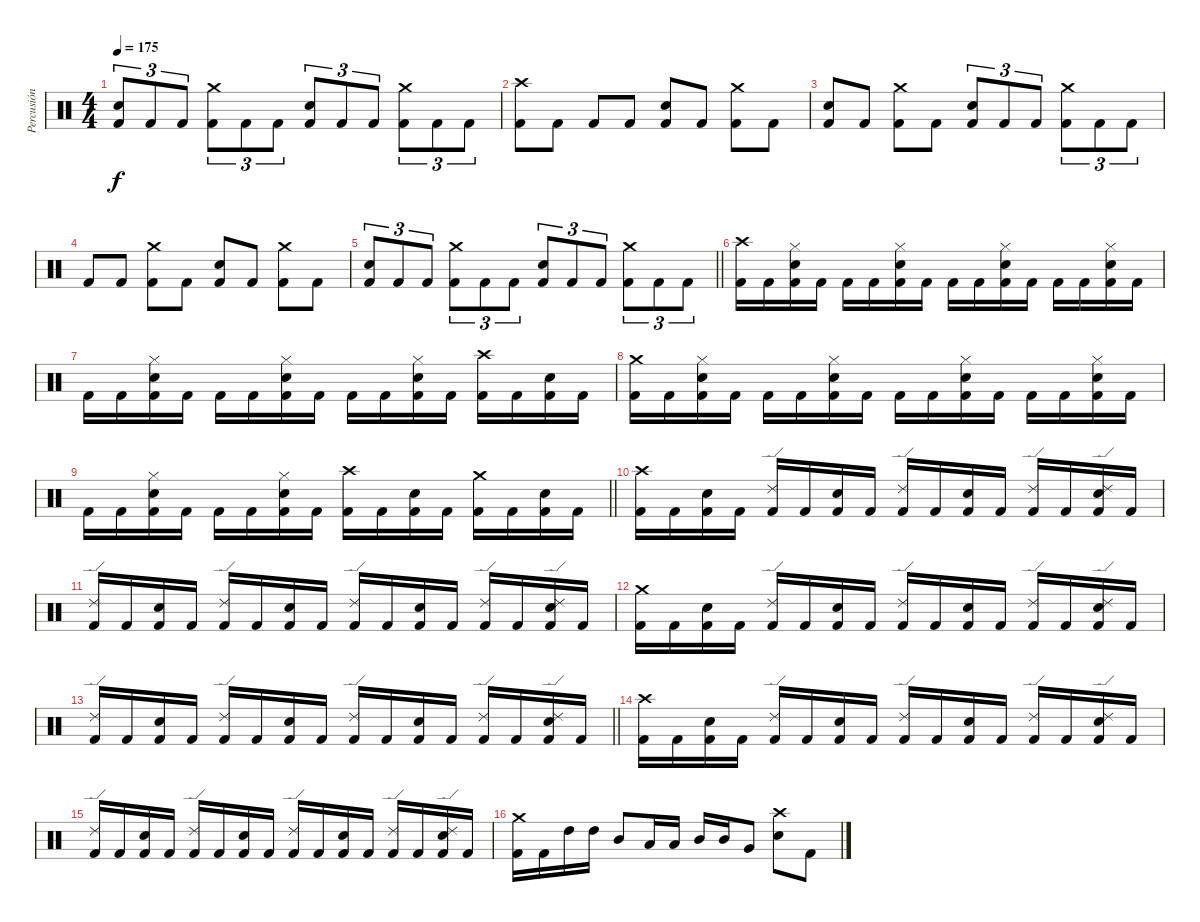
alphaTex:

\track ("Percusión" "Percusión") {instrument percussion}
\staff {score}
\articulation defaults
\ts (4 4)
\tempo 175
\clef neutral
\ks c
("Snare (hit) 2" "Kick (hit) 2").8{tu (3 2) dy f} "Kick (hit) 2".8{tu (3 2)} "Kick (hit) 2".8{tu (3 2)} ("Crash medium (hit)" "Kick (hit) 2").8{tu (3 2)} "Kick (hit) 2".8{tu (3 2)} "Kick (hit) 2".8{tu (3 2)} ("Snare (hit) 2" "Kick (hit) 2").8{tu (3 2)} "Kick (hit) 2".8{tu (3 2)} "Kick (hit) 2".8{tu (3 2)} ("Crash medium (hit)" "Kick (hit) 2").8{tu (3 2)} "Kick (hit) 2".8{tu (3 2)} "Kick (hit) 2".8{tu (3 2)} |
("Crash high (hit)" "Kick (hit) 2").8 "Kick (hit) 2".8 "Kick (hit) 2".8 "Kick (hit) 2".8 ("Snare (hit) 2" "Kick (hit) 2").8 "Kick (hit) 2".8 ("Crash medium (hit)" "Kick (hit) 2").8 "Kick (hit) 2".8 |
("Snare (hit) 2" "Kick (hit) 2").8 "Kick (hit) 2".8 ("Crash medium (hit)" "Kick (hit) 2").8 "Kick (hit) 2".8 ("Snare (hit) 2" "Kick (hit) 2").8{tu (3 2)} "Kick (hit) 2".8{tu (3 2)} "Kick (hit) 2".8{tu (3 2)} ("Crash medium (hit)" "Kick (hit) 2").8{tu (3 2)} "Kick (hit) 2".8{tu (3 2)} "Kick (hit) 2".8{tu (3 2)} |
"Kick (hit) 2".8 "Kick (hit) 2".8 ("Crash medium (hit)" "Kick (hit) 2").8 "Kick (hit) 2".8 ("Snare (hit) 2" "Kick (hit) 2").8 "Kick (hit) 2".8 ("Crash medium (hit)" "Kick (hit) 2").8 "Kick (hit) 2".8 |
\barLineRight lightlight
("Snare (hit) 2" "Kick (hit) 2").8{tu (3 2)} "Kick (hit) 2".8{tu (3 2)} "Kick (hit) 2".8{tu (3 2)} ("Crash medium (hit)" "Kick (hit) 2").8{tu (3 2)} "Kick (hit) 2".8{tu (3 2)} "Kick (hit) 2".8{tu (3 2)} ("Snare (hit) 2" "Kick (hit) 2").8{tu (3 2)} "Kick (hit) 2".8{tu (3 2)} "Kick (hit) 2".8{tu (3 2)} ("Crash medium (hit)" "Kick (hit) 2").8{tu (3 2)} "Kick (hit) 2".8{tu (3 2)} "Kick (hit) 2".8{tu (3 2)} |
\section ("" "")
("Crash high (hit)" "Kick (hit) 2").16 "Kick (hit) 2".16 ("Hi-Hat (closed)" "Snare (hit) 2" "Kick (hit) 2").16 "Kick (hit) 2".16 "Kick (hit) 2".16 "Kick (hit) 2".16 ("Hi-Hat (closed)" "Snare (hit) 2" "Kick (hit) 2").16 "Kick (hit) 2".16 "Kick (hit) 2".16 "Kick (hit) 2".16 ("Hi-Hat (closed)" "Snare (hit) 2" "Kick (hit) 2").16 "Kick (hit) 2".16 "Kick (hit) 2".16 "Kick (hit) 2".16 ("Hi-Hat (closed)" "Snare (hit) 2" "Kick (hit) 2").16 "Kick (hit) 2".16 |
"Kick (hit) 2".16 "Kick (hit) 2".16 ("Hi-Hat (closed)" "Snare (hit) 2" "Kick (hit) 2").16 "Kick (hit) 2".16 "Kick (hit) 2".16 "Kick (hit) 2".16 ("Hi-Hat (closed)" "Snare (hit) 2" "Kick (hit) 2").16 "Kick (hit) 2".16 "Kick (hit) 2".16 "Kick (hit) 2".16 ("Hi-Hat (closed)" "Snare (hit) 2" "Kick (hit) 2").16 "Kick (hit) 2".16 ("Crash high (hit)" "Kick (hit) 2").16 "Kick (hit) 2".16 ("Snare (hit) 2" "Kick (hit) 2").16 "Kick (hit) 2".16 |
("Crash medium (hit)" "Kick (hit) 2").16 "Kick (hit) 2".16 ("Hi-Hat (closed)" "Snare (hit) 2" "Kick (hit) 2").16 "Kick (hit) 2".16 "Kick (hit) 2".16 "Kick (hit) 2".16 ("Hi-Hat (closed)" "Snare (hit) 2" "Kick (hit) 2").16 "Kick (hit) 2".16 "Kick (hit) 2".16 "Kick (hit) 2".16 ("Hi-Hat (closed)" "Snare (hit) 2" "Kick (hit) 2").16 "Kick (hit) 2".16 "Kick (hit) 2".16 "Kick (hit) 2".16 ("Hi-Hat (closed)" "Snare (hit) 2" "Kick (hit) 2").16 "Kick (hit) 2".16 |
\barLineRight lightlight "Kick (hit) 2".16 "Kick (hit) 2".16
("Hi-Hat (closed)" "Snare (hit) 2" "Kick (hit) 2").16 "Kick (hit) 2".16 "Kick (hit) 2".16 "Kick (hit) 2".16 ("Hi-Hat (closed)" "Snare (hit) 2" "Kick (hit) 2").16 "Kick (hit) 2".16 ("Crash high (hit)" "Kick (hit) 2").16 "Kick (hit) 2".16 ("Snare (hit) 2" "Kick (hit) 2").16 "Kick (hit) 2".16 ("Crash medium (hit)" "Kick (hit) 2").16 "Kick (hit) 2".16 ("Snare (hit) 2" "Kick (hit) 2").16 "Kick (hit) 2".16 |
\section ("" "")
("Crash high (hit)" "Kick (hit) 2").16 "Kick (hit) 2".16 ("Snare (hit) 2" "Kick (hit) 2").16 "Kick (hit) 2".16 ("Ride (edge) 2" "Kick (hit) 2").16 "Kick (hit) 2".16 ("Snare (hit) 2" "Kick (hit) 2").16 "Kick (hit) 2".16 ("Ride (edge) 2" "Kick (hit) 2").16 "Kick (hit) 2".16 ("Snare (hit) 2" "Kick (hit) 2").16 "Kick (hit) 2".16 ("Ride (edge) 2" "Kick (hit) 2").16 "Kick (hit) 2".16 ("Ride (edge) 2" "Snare (hit) 2" "Kick (hit) 2").16 "Kick (hit) 2".16 |
("Ride (edge) 2" "Kick (hit) 2").16 "Kick (hit) 2".16 ("Snare (hit) 2" "Kick (hit) 2").16 "Kick (hit) 2".16 ("Ride (edge) 2" "Kick (hit) 2").16 "Kick (hit) 2".16 ("Snare (hit) 2" "Kick (hit) 2").16 "Kick (hit) 2".16 ("Ride (edge) 2" "Kick (hit) 2").16 "Kick (hit) 2".16 ("Snare (hit) 2" "Kick (hit) 2").16 "Kick (hit) 2".16 ("Ride (edge) 2" "Kick (hit) 2").16 "Kick (hit) 2".16 ("Ride (edge) 2" "Snare (hit) 2" "Kick (hit) 2").16 "Kick (hit) 2".16 |
("Crash medium (hit)" "Kick (hit) 2").16 "Kick (hit) 2".16 ("Snare (hit) 2" "Kick (hit) 2").16 "Kick (hit) 2".16 ("Ride (edge) 2" "Kick (hit) 2").16 "Kick (hit) 2".16 ("Snare (hit) 2" "Kick (hit) 2").16 "Kick (hit) 2".16 ("Ride (edge) 2" "Kick (hit) 2").16 "Kick (hit) 2".16 ("Snare (hit) 2" "Kick (hit) 2").16 "Kick (hit) 2".16 ("Ride (edge) 2" "Kick (hit) 2").16 "Kick (hit) 2".16 ("Ride (edge) 2" "Snare (hit) 2" "Kick (hit) 2").16 "Kick (hit) 2".16 |
\barLineRight lightlight
("Ride (edge) 2" "Kick (hit) 2").16 "Kick (hit) 2".16 ("Snare (hit) 2" "Kick (hit) 2").16 "Kick (hit) 2".16 ("Ride (edge) 2" "Kick (hit) 2").16 "Kick (hit) 2".16 ("Snare (hit) 2" "Kick (hit) 2").16 "Kick (hit) 2".16 ("Ride (edge) 2" "Kick (hit) 2").16 "Kick (hit) 2".16 ("Snare (hit) 2" "Kick (hit) 2").16 "Kick (hit) 2".16 ("Ride (edge) 2" "Kick (hit) 2").16 "Kick (hit) 2".16 ("Ride (edge) 2" "Snare (hit) 2" "Kick (hit) 2").16 "Kick (hit) 2".16 |
("Crash high (hit)" "Kick (hit) 2").16 "Kick (hit) 2".16 ("Snare (hit) 2" "Kick (hit) 2").16 "Kick (hit) 2".16 ("Ride (edge) 2" "Kick (hit) 2").16 "Kick (hit) 2".16 ("Snare (hit) 2" "Kick (hit) 2").16 "Kick (hit) 2".16 ("Ride (edge) 2" "Kick (hit) 2").16 "Kick (hit) 2".16 ("Snare (hit) 2" "Kick (hit) 2").16 "Kick (hit) 2".16 ("Ride (edge) 2" "Kick (hit) 2").16 "Kick (hit) 2".16 ("Ride (edge) 2" "Snare (hit) 2" "Kick (hit) 2").16 "Kick (hit) 2".16 |
("Ride (edge) 2" "Kick (hit) 2").16 "Kick (hit) 2".16 ("Snare (hit) 2" "Kick (hit) 2").16 "Kick (hit) 2".16 ("Ride (edge) 2" "Kick (hit) 2").16 "Kick (hit) 2".16 ("Snare (hit) 2" "Kick (hit) 2").16 "Kick (hit) 2".16 ("Ride (edge) 2" "Kick (hit) 2").16 "Kick (hit) 2".16 ("Snare (hit) 2" "Kick (hit) 2").16 "Kick (hit) 2".16 ("Ride (edge) 2" "Kick (hit) 2").16 "Kick (hit) 2".16 ("Ride (edge) 2" "Snare (hit) 2" "Kick (hit) 2").16 "Kick (hit) 2".16 |
("Crash medium (hit)" "Kick (hit) 2").16 "Kick (hit) 2".16 "High Tom (hit)".16 "High Tom (hit)".16 "Mid Tom (hit)".8 "Low Tom (hit)".16 "Low Tom (hit)".16 "Mid Tom (hit)".16 "Mid Tom (hit)".16 "Very Low Tom (hit)".8 ("Crash high (hit)" "Snare (hit) 2").8 "Kick (hit) 2".8
